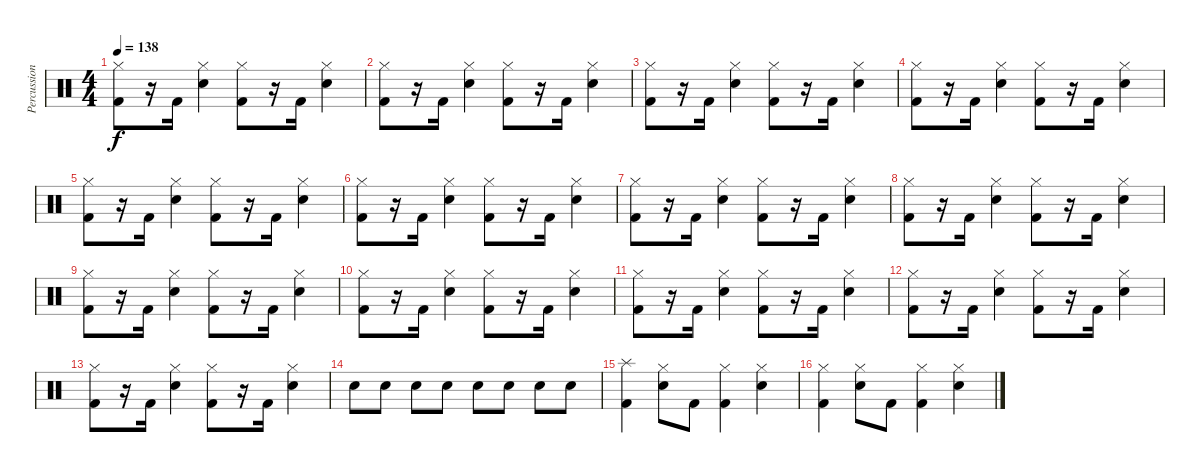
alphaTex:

\track ("Percussions" "Percussion") {instrument percussion}
\staff {score}
\articulation defaults
\ts (4 4)
\tempo 138
\clef neutral
\ks c
("Hi-Hat (closed)" "Kick (hit) 2").8{dy f} r.16 "Kick (hit) 2".16 ("Hi-Hat (closed)" "Snare (hit) 2").4 ("Hi-Hat (closed)" "Kick (hit) 2").8 r.16 "Kick (hit) 2".16 ("Hi-Hat (closed)" "Snare (hit) 2").4 |
("Hi-Hat (closed)" "Kick (hit) 2").8 r.16 "Kick (hit) 2".16 ("Hi-Hat (closed)" "Snare (hit) 2").4 ("Hi-Hat (closed)" "Kick (hit) 2").8 r.16 "Kick (hit) 2".16 ("Hi-Hat (closed)" "Snare (hit) 2").4 |
("Hi-Hat (closed)" "Kick (hit) 2").8 r.16 "Kick (hit) 2".16 ("Hi-Hat (closed)" "Snare (hit) 2").4 ("Hi-Hat (closed)" "Kick (hit) 2").8 r.16 "Kick (hit) 2".16 ("Hi-Hat (closed)" "Snare (hit) 2").4 |
("Hi-Hat (closed)" "Kick (hit) 2").8 r.16 "Kick (hit) 2".16 ("Hi-Hat (closed)" "Snare (hit) 2").4 ("Hi-Hat (closed)" "Kick (hit) 2").8 r.16 "Kick (hit) 2".16 ("Hi-Hat (closed)" "Snare (hit) 2").4 |
("Hi-Hat (closed)" "Kick (hit) 2").8 r.16 "Kick (hit) 2".16 ("Hi-Hat (closed)" "Snare (hit) 2").4 ("Hi-Hat (closed)" "Kick (hit) 2").8 r.16 "Kick (hit) 2".16 ("Hi-Hat (closed)" "Snare (hit) 2").4 |
("Hi-Hat (closed)" "Kick (hit) 2").8 r.16 "Kick (hit) 2".16 ("Hi-Hat (closed)" "Snare (hit) 2").4 ("Hi-Hat (closed)" "Kick (hit) 2").8 r.16 "Kick (hit) 2".16 ("Hi-Hat (closed)" "Snare (hit) 2").4 |
("Hi-Hat (closed)" "Kick (hit) 2").8 r.16 "Kick (hit) 2".16 ("Hi-Hat (closed)" "Snare (hit) 2").4 ("Hi-Hat (closed)" "Kick (hit) 2").8 r.16 "Kick (hit) 2".16 ("Hi-Hat (closed)" "Snare (hit) 2").4 |
("Hi-Hat (closed)" "Kick (hit) 2").8 r.16 "Kick (hit) 2".16 ("Hi-Hat (closed)" "Snare (hit) 2").4 ("Hi-Hat (closed)" "Kick (hit) 2").8 r.16 "Kick (hit) 2".16 ("Hi-Hat (closed)" "Snare (hit) 2").4 |
("Hi-Hat (closed)" "Kick (hit) 2").8 r.16 "Kick (hit) 2".16 ("Hi-Hat (closed)" "Snare (hit) 2").4 ("Hi-Hat (closed)" "Kick (hit) 2").8 r.16 "Kick (hit) 2".16 ("Hi-Hat (closed)" "Snare (hit) 2").4 |
("Hi-Hat (closed)" "Kick (hit) 2").8 r.16 "Kick (hit) 2".16 ("Hi-Hat (closed)" "Snare (hit) 2").4 ("Hi-Hat (closed)" "Kick (hit) 2").8 r.16 "Kick (hit) 2".16 ("Hi-Hat (closed)" "Snare (hit) 2").4 |
("Hi-Hat (closed)" "Kick (hit) 2").8 r.16 "Kick (hit) 2".16 ("Hi-Hat (closed)" "Snare (hit) 2").4 ("Hi-Hat (closed)" "Kick (hit) 2").8 r.16 "Kick (hit) 2".16 ("Hi-Hat (closed)" "Snare (hit) 2").4 |
("Hi-Hat (closed)" "Kick (hit) 2").8 r.16 "Kick (hit) 2".16 ("Hi-Hat (closed)" "Snare (hit) 2").4 ("Hi-Hat (closed)" "Kick (hit) 2").8 r.16 "Kick (hit) 2".16 ("Hi-Hat (closed)" "Snare (hit) 2").4 |
("Hi-Hat (closed)" "Kick (hit) 2").8 r.16 "Kick (hit) 2".16 ("Hi-Hat (closed)" "Snare (hit) 2").4 ("Hi-Hat (closed)" "Kick (hit) 2").8 r.16 "Kick (hit) 2".16 ("Hi-Hat (closed)" "Snare (hit) 2").4 |
"Snare (hit) 2".8 "Snare (hit) 2".8 "Snare (hit) 2".8 "Snare (hit) 2".8 "Snare (hit) 2".8 "Snare (hit) 2".8 "Snare (hit) 2".8 "Snare (hit) 2".8 |
("Splash (hit)" "Kick (hit) 2").4 ("Hi-Hat (closed)" "Snare (hit) 2").8 "Kick (hit) 2".8 ("Hi-Hat (closed)" "Kick (hit) 2").4 ("Hi-Hat (closed)" "Snare (hit) 2").4 |
("Hi-Hat (closed)" "Kick (hit) 2").4 ("Hi-Hat (closed)" "Snare (hit) 2").8 "Kick (hit) 2".8 ("Hi-Hat (closed)" "Kick (hit) 2").4 ("Hi-Hat (closed)" "Snare (hit) 2").4
